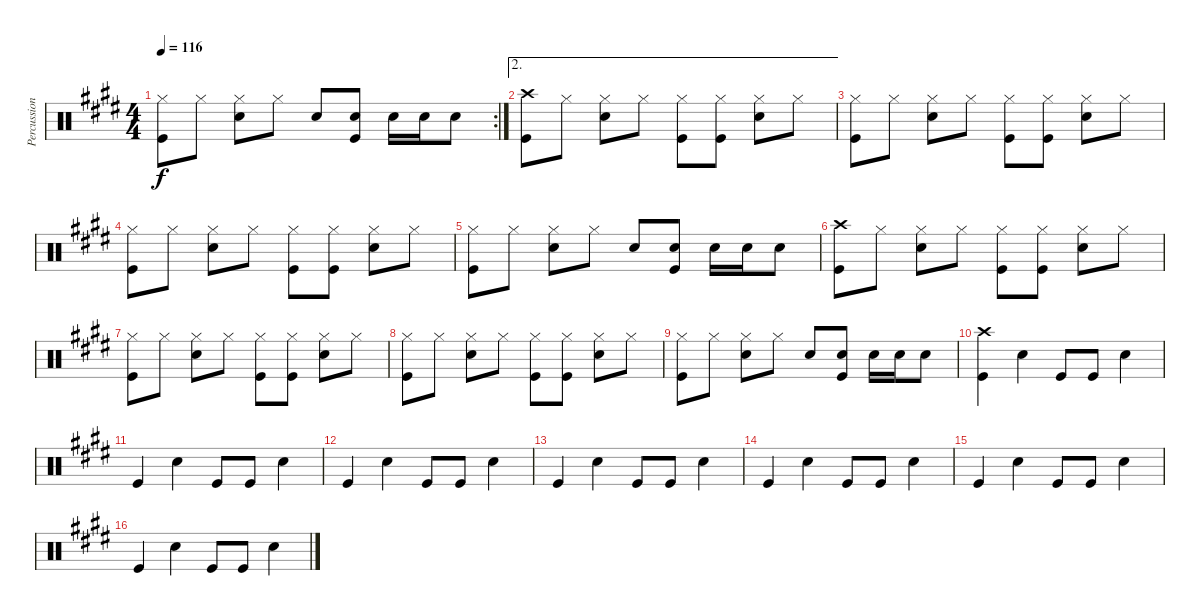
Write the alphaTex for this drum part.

\track ("Percussion" "Percussion") {instrument percussion}
\staff {score}
\articulation defaults
\rc 2
\ts (4 4)
\tempo 116
\clef neutral
\ks e
("Hi-Hat (closed)" "Kick (hit)").8{dy f} "Hi-Hat (closed)".8 ("Hi-Hat (closed)" "Snare (hit) 2").8 "Hi-Hat (closed)".8 "Snare (hit) 2".8 ("Snare (hit) 2" "Kick (hit)").8 "Snare (hit) 2".16 "Snare (hit) 2".16 "Snare (hit) 2".8 |
\ae 2
("Crash high (hit)" "Kick (hit)").8 "Hi-Hat (closed)".8 ("Hi-Hat (closed)" "Snare (hit) 2").8 "Hi-Hat (closed)".8 ("Hi-Hat (closed)" "Kick (hit)").8 ("Hi-Hat (closed)" "Kick (hit)").8 ("Hi-Hat (closed)" "Snare (hit) 2").8 "Hi-Hat (closed)".8 |
("Hi-Hat (closed)" "Kick (hit)").8 "Hi-Hat (closed)".8 ("Hi-Hat (closed)" "Snare (hit) 2").8 "Hi-Hat (closed)".8 ("Hi-Hat (closed)" "Kick (hit)").8 ("Hi-Hat (closed)" "Kick (hit)").8 ("Hi-Hat (closed)" "Snare (hit) 2").8 "Hi-Hat (closed)".8 |
("Hi-Hat (closed)" "Kick (hit)").8 "Hi-Hat (closed)".8 ("Hi-Hat (closed)" "Snare (hit) 2").8 "Hi-Hat (closed)".8 ("Hi-Hat (closed)" "Kick (hit)").8 ("Hi-Hat (closed)" "Kick (hit)").8 ("Hi-Hat (closed)" "Snare (hit) 2").8 "Hi-Hat (closed)".8 |
("Hi-Hat (closed)" "Kick (hit)").8 "Hi-Hat (closed)".8 ("Hi-Hat (closed)" "Snare (hit) 2").8 "Hi-Hat (closed)".8 "Snare (hit) 2".8 ("Snare (hit) 2" "Kick (hit)").8 "Snare (hit) 2".16 "Snare (hit) 2".16 "Snare (hit) 2".8 |
("Crash high (hit)" "Kick (hit)").8 "Hi-Hat (closed)".8 ("Hi-Hat (closed)" "Snare (hit) 2").8 "Hi-Hat (closed)".8 ("Hi-Hat (closed)" "Kick (hit)").8 ("Hi-Hat (closed)" "Kick (hit)").8 ("Hi-Hat (closed)" "Snare (hit) 2").8 "Hi-Hat (closed)".8 |
("Hi-Hat (closed)" "Kick (hit)").8 "Hi-Hat (closed)".8 ("Hi-Hat (closed)" "Snare (hit) 2").8 "Hi-Hat (closed)".8 ("Hi-Hat (closed)" "Kick (hit)").8 ("Hi-Hat (closed)" "Kick (hit)").8 ("Hi-Hat (closed)" "Snare (hit) 2").8 "Hi-Hat (closed)".8 |
("Hi-Hat (closed)" "Kick (hit)").8 "Hi-Hat (closed)".8 ("Hi-Hat (closed)" "Snare (hit) 2").8 "Hi-Hat (closed)".8 ("Hi-Hat (closed)" "Kick (hit)").8 ("Hi-Hat (closed)" "Kick (hit)").8 ("Hi-Hat (closed)" "Snare (hit) 2").8 "Hi-Hat (closed)".8 |
("Hi-Hat (closed)" "Kick (hit)").8 "Hi-Hat (closed)".8 ("Hi-Hat (closed)" "Snare (hit) 2").8 "Hi-Hat (closed)".8 "Snare (hit) 2".8 ("Snare (hit) 2" "Kick (hit)").8 "Snare (hit) 2".16 "Snare (hit) 2".16 "Snare (hit) 2".8 |
("Crash high (hit)" "Kick (hit)").4 "Snare (hit) 2".4 "Kick (hit)".8 "Kick (hit)".8 "Snare (hit) 2".4 |
"Kick (hit)".4 "Snare (hit) 2".4 "Kick (hit)".8 "Kick (hit)".8 "Snare (hit) 2".4 |
"Kick (hit)".4 "Snare (hit) 2".4 "Kick (hit)".8 "Kick (hit)".8 "Snare (hit) 2".4 |
"Kick (hit)".4 "Snare (hit) 2".4 "Kick (hit)".8 "Kick (hit)".8 "Snare (hit) 2".4 |
"Kick (hit)".4 "Snare (hit) 2".4 "Kick (hit)".8 "Kick (hit)".8 "Snare (hit) 2".4 |
"Kick (hit)".4 "Snare (hit) 2".4 "Kick (hit)".8 "Kick (hit)".8 "Snare (hit) 2".4 |
"Kick (hit)".4 "Snare (hit) 2".4 "Kick (hit)".8 "Kick (hit)".8 "Snare (hit) 2".4
